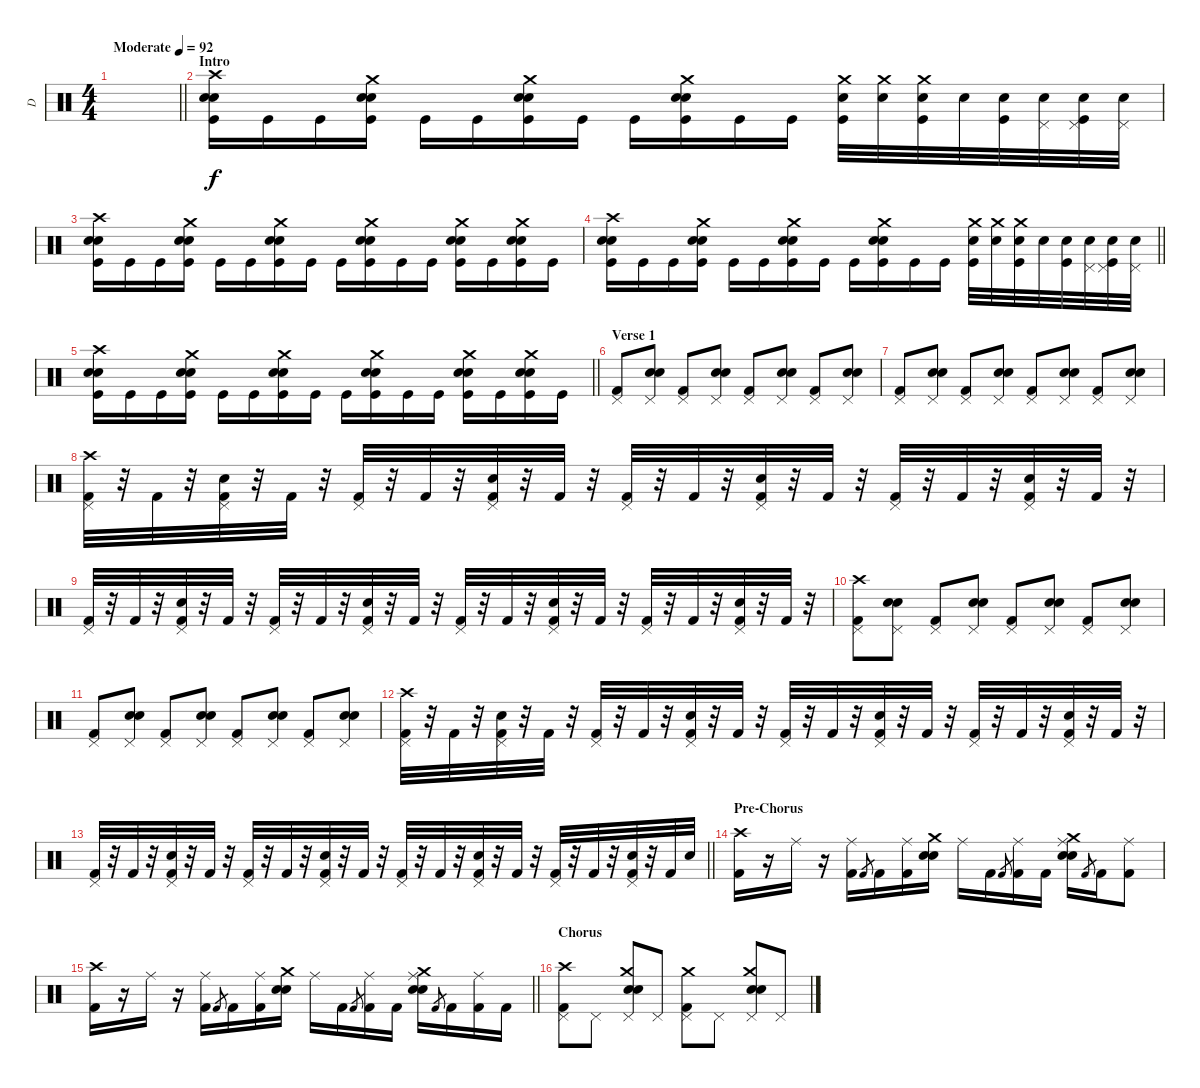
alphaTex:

\track ("D" "D") {instrument percussion}
\staff {score}
\articulation defaults
\ts (4 4)
\tempo (92 "Moderate")
\clef neutral
\barLineRight lightlight
\ks c
|
\section ("" "Intro")
("Crash high (hit)" "Electric Snare (hit)" "Electric Snare (hit)" "Kick (hit)").16 "Kick (hit)".16 "Kick (hit)".16 ("Crash medium (hit)" "Electric Snare (hit)" "Electric Snare (hit)" "Kick (hit)").16 "Kick (hit)".16 "Kick (hit)".16 ("Crash medium (hit)" "Electric Snare (hit)" "Electric Snare (hit)" "Kick (hit)").16 "Kick (hit)".16 "Kick (hit)".16 ("Crash medium (hit)" "Electric Snare (hit)" "Electric Snare (hit)" "Kick (hit)").16 "Kick (hit)".16 "Kick (hit)".16 ("Electric Snare (hit)" "Kick (hit)" "Crash medium (hit)").32 ("Electric Snare (hit)" "Crash medium (hit)").32 ("Electric Snare (hit)" "Kick (hit)" "Crash medium (hit)").32 "Electric Snare (hit)".32 ("Electric Snare (hit)" "Kick (hit)").32 ("Electric Snare (hit)" "Pedal Hi-Hat (hit)").32 ("Electric Snare (hit)" "Kick (hit)" "Pedal Hi-Hat (hit)").32 ("Electric Snare (hit)" "Pedal Hi-Hat (hit)").32 |
("Crash high (hit)" "Electric Snare (hit)" "Electric Snare (hit)" "Kick (hit)").16 "Kick (hit)".16 "Kick (hit)".16 ("Crash medium (hit)" "Electric Snare (hit)" "Electric Snare (hit)" "Kick (hit)").16 "Kick (hit)".16 "Kick (hit)".16 ("Crash medium (hit)" "Electric Snare (hit)" "Electric Snare (hit)" "Kick (hit)").16 "Kick (hit)".16 "Kick (hit)".16 ("Crash medium (hit)" "Electric Snare (hit)" "Electric Snare (hit)" "Kick (hit)").16 "Kick (hit)".16 "Kick (hit)".16 ("Crash medium (hit)" "Electric Snare (hit)" "Electric Snare (hit)" "Kick (hit)").16 "Kick (hit)".16 ("Crash medium (hit)" "Electric Snare (hit)" "Electric Snare (hit)" "Kick (hit)").16 "Kick (hit)".16 |
\barLineRight lightlight
("Crash high (hit)" "Electric Snare (hit)" "Electric Snare (hit)" "Kick (hit)").16 "Kick (hit)".16 "Kick (hit)".16 ("Crash medium (hit)" "Electric Snare (hit)" "Electric Snare (hit)" "Kick (hit)").16 "Kick (hit)".16 "Kick (hit)".16 ("Crash medium (hit)" "Electric Snare (hit)" "Electric Snare (hit)" "Kick (hit)").16 "Kick (hit)".16 "Kick (hit)".16 ("Crash medium (hit)" "Electric Snare (hit)" "Electric Snare (hit)" "Kick (hit)").16 "Kick (hit)".16 "Kick (hit)".16 ("Electric Snare (hit)" "Kick (hit)" "Crash medium (hit)").32 ("Electric Snare (hit)" "Crash medium (hit)").32 ("Electric Snare (hit)" "Kick (hit)" "Crash medium (hit)").32 "Electric Snare (hit)".32 ("Electric Snare (hit)" "Kick (hit)").32 ("Electric Snare (hit)" "Pedal Hi-Hat (hit)").32 ("Electric Snare (hit)" "Kick (hit)" "Pedal Hi-Hat (hit)").32 ("Electric Snare (hit)" "Pedal Hi-Hat (hit)").32 |
\section ("" "")
\barLineRight lightlight
("Crash high (hit)" "Electric Snare (hit)" "Electric Snare (hit)" "Kick (hit)").16 "Kick (hit)".16 "Kick (hit)".16 ("Crash medium (hit)" "Electric Snare (hit)" "Electric Snare (hit)" "Kick (hit)").16 "Kick (hit)".16 "Kick (hit)".16 ("Crash medium (hit)" "Electric Snare (hit)" "Electric Snare (hit)" "Kick (hit)").16 "Kick (hit)".16 "Kick (hit)".16 ("Crash medium (hit)" "Electric Snare (hit)" "Electric Snare (hit)" "Kick (hit)").16 "Kick (hit)".16 "Kick (hit)".16 ("Crash medium (hit)" "Electric Snare (hit)" "Electric Snare (hit)" "Kick (hit)").16 "Kick (hit)".16 ("Crash medium (hit)" "Electric Snare (hit)" "Electric Snare (hit)" "Kick (hit)").16 "Kick (hit)".16 |
\section ("" "Verse 1")
("Kick (hit) 2" "Pedal Hi-Hat (hit)").8 ("Electric Snare (hit)" "Electric Snare (hit)" "Pedal Hi-Hat (hit)").8 ("Kick (hit) 2" "Pedal Hi-Hat (hit)").8 ("Electric Snare (hit)" "Electric Snare (hit)" "Pedal Hi-Hat (hit)").8 ("Kick (hit) 2" "Pedal Hi-Hat (hit)").8 ("Electric Snare (hit)" "Electric Snare (hit)" "Pedal Hi-Hat (hit)").8 ("Kick (hit) 2" "Pedal Hi-Hat (hit)").8 ("Electric Snare (hit)" "Electric Snare (hit)" "Pedal Hi-Hat (hit)").8 |
("Kick (hit) 2" "Pedal Hi-Hat (hit)").8 ("Electric Snare (hit)" "Electric Snare (hit)" "Pedal Hi-Hat (hit)").8 ("Kick (hit) 2" "Pedal Hi-Hat (hit)").8 ("Electric Snare (hit)" "Electric Snare (hit)" "Pedal Hi-Hat (hit)").8 ("Kick (hit) 2" "Pedal Hi-Hat (hit)").8 ("Electric Snare (hit)" "Electric Snare (hit)" "Pedal Hi-Hat (hit)").8 ("Kick (hit) 2" "Pedal Hi-Hat (hit)").8 ("Electric Snare (hit)" "Electric Snare (hit)" "Pedal Hi-Hat (hit)").8 |
("Crash high (hit)" "Kick (hit) 2" "Pedal Hi-Hat (hit)").32 r.32 "Kick (hit) 2".32 r.32 ("Electric Snare (hit)" "Kick (hit) 2" "Pedal Hi-Hat (hit)").32 r.32 "Kick (hit) 2".32 r.32 ("Kick (hit) 2" "Pedal Hi-Hat (hit)").32 r.32 "Kick (hit) 2".32 r.32 ("Electric Snare (hit)" "Kick (hit) 2" "Pedal Hi-Hat (hit)").32 r.32 "Kick (hit) 2".32 r.32 ("Kick (hit) 2" "Pedal Hi-Hat (hit)").32 r.32 "Kick (hit) 2".32 r.32 ("Electric Snare (hit)" "Kick (hit) 2" "Pedal Hi-Hat (hit)").32 r.32 "Kick (hit) 2".32 r.32 ("Kick (hit) 2" "Pedal Hi-Hat (hit)").32 r.32 "Kick (hit) 2".32 r.32 ("Electric Snare (hit)" "Kick (hit) 2" "Pedal Hi-Hat (hit)").32 r.32 "Kick (hit) 2".32 r.32 |
("Kick (hit) 2" "Pedal Hi-Hat (hit)").32 r.32 "Kick (hit) 2".32 r.32 ("Electric Snare (hit)" "Kick (hit) 2" "Pedal Hi-Hat (hit)").32 r.32 "Kick (hit) 2".32 r.32 ("Kick (hit) 2" "Pedal Hi-Hat (hit)").32 r.32 "Kick (hit) 2".32 r.32 ("Electric Snare (hit)" "Kick (hit) 2" "Pedal Hi-Hat (hit)").32 r.32 "Kick (hit) 2".32 r.32 ("Kick (hit) 2" "Pedal Hi-Hat (hit)").32 r.32 "Kick (hit) 2".32 r.32 ("Electric Snare (hit)" "Kick (hit) 2" "Pedal Hi-Hat (hit)").32 r.32 "Kick (hit) 2".32 r.32 ("Kick (hit) 2" "Pedal Hi-Hat (hit)").32 r.32 "Kick (hit) 2".32 r.32 ("Electric Snare (hit)" "Kick (hit) 2" "Pedal Hi-Hat (hit)").32 r.32 "Kick (hit) 2".32 r.32 |
("Crash high (hit)" "Kick (hit) 2" "Pedal Hi-Hat (hit)").8 ("Electric Snare (hit)" "Electric Snare (hit)" "Pedal Hi-Hat (hit)").8 ("Kick (hit) 2" "Pedal Hi-Hat (hit)").8 ("Electric Snare (hit)" "Electric Snare (hit)" "Pedal Hi-Hat (hit)").8 ("Kick (hit) 2" "Pedal Hi-Hat (hit)").8 ("Electric Snare (hit)" "Electric Snare (hit)" "Pedal Hi-Hat (hit)").8 ("Kick (hit) 2" "Pedal Hi-Hat (hit)").8 ("Electric Snare (hit)" "Electric Snare (hit)" "Pedal Hi-Hat (hit)").8 |
("Kick (hit) 2" "Pedal Hi-Hat (hit)").8 ("Electric Snare (hit)" "Electric Snare (hit)" "Pedal Hi-Hat (hit)").8 ("Kick (hit) 2" "Pedal Hi-Hat (hit)").8 ("Electric Snare (hit)" "Electric Snare (hit)" "Pedal Hi-Hat (hit)").8 ("Kick (hit) 2" "Pedal Hi-Hat (hit)").8 ("Electric Snare (hit)" "Electric Snare (hit)" "Pedal Hi-Hat (hit)").8 ("Kick (hit) 2" "Pedal Hi-Hat (hit)").8 ("Electric Snare (hit)" "Electric Snare (hit)" "Pedal Hi-Hat (hit)").8 |
("Crash high (hit)" "Kick (hit) 2" "Pedal Hi-Hat (hit)").32 r.32 "Kick (hit) 2".32 r.32 ("Electric Snare (hit)" "Kick (hit) 2" "Pedal Hi-Hat (hit)").32 r.32 "Kick (hit) 2".32 r.32 ("Kick (hit) 2" "Pedal Hi-Hat (hit)").32 r.32 "Kick (hit) 2".32 r.32 ("Electric Snare (hit)" "Kick (hit) 2" "Pedal Hi-Hat (hit)").32 r.32 "Kick (hit) 2".32 r.32 ("Kick (hit) 2" "Pedal Hi-Hat (hit)").32 r.32 "Kick (hit) 2".32 r.32 ("Electric Snare (hit)" "Kick (hit) 2" "Pedal Hi-Hat (hit)").32 r.32 "Kick (hit) 2".32 r.32 ("Kick (hit) 2" "Pedal Hi-Hat (hit)").32 r.32 "Kick (hit) 2".32 r.32 ("Electric Snare (hit)" "Kick (hit) 2" "Pedal Hi-Hat (hit)").32 r.32 "Kick (hit) 2".32 r.32 |
\barLineRight lightlight
("Kick (hit) 2" "Pedal Hi-Hat (hit)").32 r.32 "Kick (hit) 2".32 r.32 ("Electric Snare (hit)" "Kick (hit) 2" "Pedal Hi-Hat (hit)").32 r.32 "Kick (hit) 2".32 r.32 ("Kick (hit) 2" "Pedal Hi-Hat (hit)").32 r.32 "Kick (hit) 2".32 r.32 ("Electric Snare (hit)" "Kick (hit) 2" "Pedal Hi-Hat (hit)").32 r.32 "Kick (hit) 2".32 r.32 ("Kick (hit) 2" "Pedal Hi-Hat (hit)").32 r.32 "Kick (hit) 2".32 r.32 ("Electric Snare (hit)" "Kick (hit) 2" "Pedal Hi-Hat (hit)").32 r.32 "Kick (hit) 2".32 r.32 ("Kick (hit) 2" "Pedal Hi-Hat (hit)").32 r.32 "Kick (hit) 2".32 r.32 ("Electric Snare (hit)" "Kick (hit) 2" "Pedal Hi-Hat (hit)").32 r.32 "Kick (hit) 2".32 "Snare (hit)".32 |
\section ("" "Pre-Chorus")
("Crash high (hit)" "Kick (hit) 2").16 r.16 "Ride (middle)".16 r.16 ("Kick (hit) 2" "Ride (middle)").16 "Kick (hit) 2".8{gr} "Kick (hit) 2".16 ("Kick (hit) 2" "Ride (middle)").16 ("Crash medium (hit)" "Electric Snare (hit)" "Electric Snare (hit)").16 "Ride (middle)".16 "Kick (hit) 2".16 "Kick (hit) 2".8{gr} ("Kick (hit) 2" "Ride (middle)").16 "Kick (hit) 2".16 ("Crash medium (hit)" "Electric Snare (hit)" "Electric Snare (hit)" "Ride (middle)").16 "Kick (hit) 2".8{gr} "Kick (hit) 2".16 ("Kick (hit) 2" "Ride (middle)").8 |
\barLineRight lightlight
("Crash high (hit)" "Kick (hit) 2").16 r.16 "Ride (middle)".16 r.16 ("Kick (hit) 2" "Ride (middle)").16 "Kick (hit) 2".8{gr} "Kick (hit) 2".16 ("Kick (hit) 2" "Ride (middle)").16 ("Crash medium (hit)" "Electric Snare (hit)" "Electric Snare (hit)").16 "Ride (middle)".16 "Kick (hit) 2".16 "Kick (hit) 2".8{gr} ("Kick (hit) 2" "Ride (middle)").16 "Kick (hit) 2".16 ("Crash medium (hit)" "Electric Snare (hit)" "Electric Snare (hit)" "Ride (middle)").16 "Kick (hit) 2".8{gr} "Kick (hit) 2".16 ("Kick (hit) 2" "Ride (middle)").16 "Kick (hit) 2".16 |
\section ("" "Chorus")
("Crash high (hit)" "Kick (hit) 2" "Pedal Hi-Hat (hit)").8 "Pedal Hi-Hat (hit)".8 ("Crash medium (hit)" "Electric Snare (hit)" "Electric Snare (hit)" "Pedal Hi-Hat (hit)").8 "Pedal Hi-Hat (hit)".8 ("Crash medium (hit)" "Kick (hit) 2" "Pedal Hi-Hat (hit)").8 "Pedal Hi-Hat (hit)".8 ("Crash medium (hit)" "Electric Snare (hit)" "Electric Snare (hit)" "Pedal Hi-Hat (hit)").8 "Pedal Hi-Hat (hit)".8
